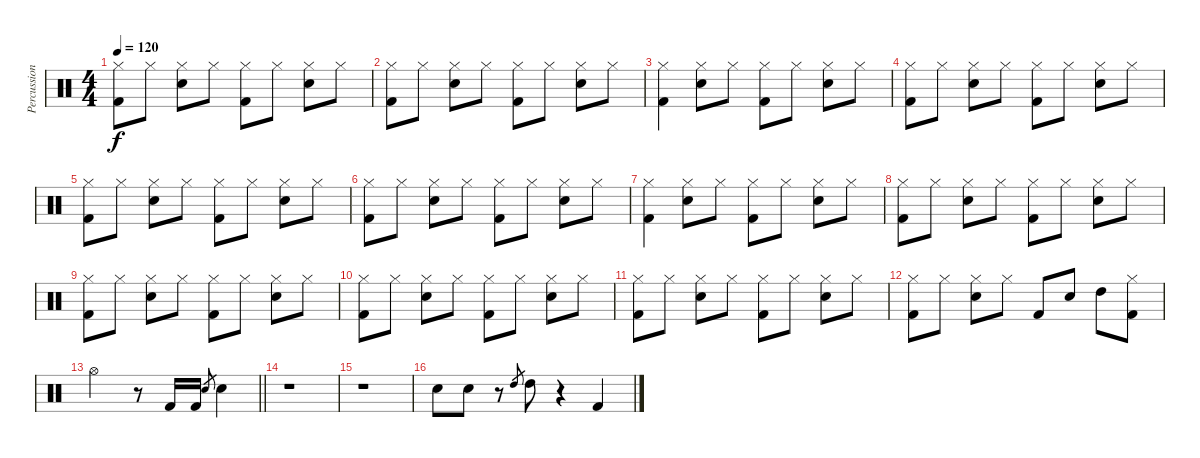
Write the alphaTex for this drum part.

\track ("Percussion" "Percussion") {instrument percussion}
\staff {score}
\articulation defaults
\ts (4 4)
\tempo 120
\clef neutral
\ks c
("Hi-Hat (closed)" "Kick (hit) 2").8{dy f} "Hi-Hat (closed)".8 ("Hi-Hat (closed)" "Snare (hit) 2").8 "Hi-Hat (closed)".8 ("Hi-Hat (closed)" "Kick (hit) 2").8 "Hi-Hat (closed)".8 ("Hi-Hat (closed)" "Snare (hit) 2").8 "Hi-Hat (closed)".8 |
("Hi-Hat (closed)" "Kick (hit) 2").8 "Hi-Hat (closed)".8 ("Hi-Hat (closed)" "Snare (hit) 2").8 "Hi-Hat (closed)".8 ("Hi-Hat (closed)" "Kick (hit) 2").8 "Hi-Hat (closed)".8 ("Hi-Hat (closed)" "Snare (hit) 2").8 "Hi-Hat (closed)".8 |
("Hi-Hat (closed)" "Kick (hit) 2").4 ("Hi-Hat (closed)" "Snare (hit) 2").8 "Hi-Hat (closed)".8 ("Hi-Hat (closed)" "Kick (hit) 2").8 "Hi-Hat (closed)".8 ("Hi-Hat (closed)" "Snare (hit) 2").8 "Hi-Hat (closed)".8 |
("Hi-Hat (closed)" "Kick (hit) 2").8 "Hi-Hat (closed)".8 ("Hi-Hat (closed)" "Snare (hit) 2").8 "Hi-Hat (closed)".8 ("Hi-Hat (closed)" "Kick (hit) 2").8 "Hi-Hat (closed)".8 ("Hi-Hat (closed)" "Snare (hit) 2").8 "Hi-Hat (closed)".8 |
("Hi-Hat (closed)" "Kick (hit) 2").8 "Hi-Hat (closed)".8 ("Hi-Hat (closed)" "Snare (hit) 2").8 "Hi-Hat (closed)".8 ("Hi-Hat (closed)" "Kick (hit) 2").8 "Hi-Hat (closed)".8 ("Hi-Hat (closed)" "Snare (hit) 2").8 "Hi-Hat (closed)".8 |
("Hi-Hat (closed)" "Kick (hit) 2").8 "Hi-Hat (closed)".8 ("Hi-Hat (closed)" "Snare (hit) 2").8 "Hi-Hat (closed)".8 ("Hi-Hat (closed)" "Kick (hit) 2").8 "Hi-Hat (closed)".8 ("Hi-Hat (closed)" "Snare (hit) 2").8 "Hi-Hat (closed)".8 |
("Hi-Hat (closed)" "Kick (hit) 2").4 ("Hi-Hat (closed)" "Snare (hit) 2").8 "Hi-Hat (closed)".8 ("Hi-Hat (closed)" "Kick (hit) 2").8 "Hi-Hat (closed)".8 ("Hi-Hat (closed)" "Snare (hit) 2").8 "Hi-Hat (closed)".8 |
("Hi-Hat (closed)" "Kick (hit) 2").8 "Hi-Hat (closed)".8 ("Hi-Hat (closed)" "Snare (hit) 2").8 "Hi-Hat (closed)".8 ("Hi-Hat (closed)" "Kick (hit) 2").8 "Hi-Hat (closed)".8 ("Hi-Hat (closed)" "Snare (hit) 2").8 "Hi-Hat (closed)".8 |
("Hi-Hat (closed)" "Kick (hit) 2").8 "Hi-Hat (closed)".8 ("Hi-Hat (closed)" "Snare (hit) 2").8 "Hi-Hat (closed)".8 ("Hi-Hat (closed)" "Kick (hit) 2").8 "Hi-Hat (closed)".8 ("Hi-Hat (closed)" "Snare (hit) 2").8 "Hi-Hat (closed)".8 |
("Hi-Hat (closed)" "Kick (hit) 2").8 "Hi-Hat (closed)".8 ("Hi-Hat (closed)" "Snare (hit) 2").8 "Hi-Hat (closed)".8 ("Hi-Hat (closed)" "Kick (hit) 2").8 "Hi-Hat (closed)".8 ("Hi-Hat (closed)" "Snare (hit) 2").8 "Hi-Hat (closed)".8 |
("Hi-Hat (closed)" "Kick (hit) 2").8 "Hi-Hat (closed)".8 ("Hi-Hat (closed)" "Snare (hit) 2").8 "Hi-Hat (closed)".8 ("Hi-Hat (closed)" "Kick (hit) 2").8 "Hi-Hat (closed)".8 ("Hi-Hat (closed)" "Snare (hit) 2").8 "Hi-Hat (closed)".8 |
("Hi-Hat (closed)" "Kick (hit) 2").8 "Hi-Hat (closed)".8 ("Hi-Hat (closed)" "Snare (hit) 2").8 "Hi-Hat (closed)".8 "Kick (hit) 2".8 "Snare (hit) 2".8 "High Tom (hit)".8 ("Hi-Hat (closed)" "Kick (hit) 2").8 |
\barLineRight lightlight "Hi-Hat (open)".2
r.8 "Kick (hit) 2".16 "Kick (hit) 2".16 "Snare (hit) 2".8{gr} "Snare (hit) 2".4 |
r.1 |
r.1 |
"Snare (hit) 2".8 "Snare (hit) 2".8 r.8 "High Tom (hit)".8{gr} "High Tom (hit)".8 r.4 "Kick (hit) 2".4
